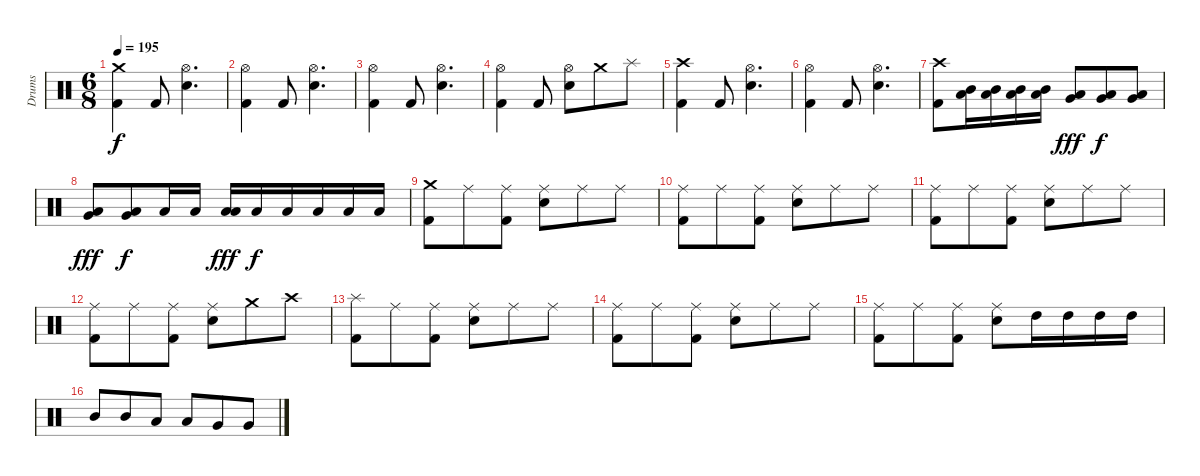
\track ("Drums" "Drums") {instrument percussion}
\staff {score}
\articulation defaults
\ts (6 8)
\tempo 195
\clef neutral
\ks c
("Crash medium (hit)" "Kick (hit) 2").4{dy f} "Kick (hit) 2".8 ("Hi-Hat (open)" "Electric Snare (hit)").4{d} |
("Hi-Hat (open)" "Kick (hit) 2").4 "Kick (hit) 2".8 ("Hi-Hat (open)" "Electric Snare (hit)").4{d} |
("Hi-Hat (open)" "Kick (hit) 2").4 "Kick (hit) 2".8 ("Hi-Hat (open)" "Electric Snare (hit)").4{d} |
("Hi-Hat (open)" "Kick (hit) 2").4 "Kick (hit) 2".8 ("Hi-Hat (open)" "Electric Snare (hit)").8 "Crash medium (hit)".8 "Splash (hit)".8 |
("Crash high (hit)" "Kick (hit) 2").4 "Kick (hit) 2".8 ("Hi-Hat (open)" "Electric Snare (hit)").4{d} |
("Hi-Hat (open)" "Kick (hit) 2").4 "Kick (hit) 2".8 ("Hi-Hat (open)" "Electric Snare (hit)").4{d} |
("Crash high (hit)" "Kick (hit) 2").8 ("Mid Tom (hit)" "Low Tom (hit)").16 ("Mid Tom (hit)" "Low Tom (hit)").16 ("Mid Tom (hit)" "Low Tom (hit)").16 ("Mid Tom (hit)" "Low Tom (hit)").16 ("Low Tom (hit)" "Very Low Tom (hit)").8{dy fff} ("Low Tom (hit)" "Very Low Tom (hit)").8{dy f} ("Very Low Tom (hit)" "Low Floor Tom (hit)").8 |
("Very Low Tom (hit)" "Low Floor Tom (hit)").8{dy fff} ("Very Low Tom (hit)" "Low Floor Tom (hit)").8{dy f} "Low Floor Tom (hit)".16 "Low Floor Tom (hit)".16 ("Low Floor Tom (hit)" "Low Floor Tom (hit)").16{dy fff} "Low Floor Tom (hit)".16{dy f} "Low Floor Tom (hit)".16 "Low Floor Tom (hit)".16 "Low Floor Tom (hit)".16 "Low Floor Tom (hit)".16 |
("Crash medium (hit)" "Kick (hit) 2").8 "Ride (middle)".8 ("Ride (middle)" "Kick (hit) 2").8 ("Ride (middle)" "Electric Snare (hit)").8 "Ride (middle)".8 "Ride (middle)".8 |
("Ride (middle)" "Kick (hit) 2").8 "Ride (middle)".8 ("Ride (middle)" "Kick (hit) 2").8 ("Ride (middle)" "Electric Snare (hit)").8 "Ride (middle)".8 "Ride (middle)".8 |
("Ride (middle)" "Kick (hit) 2").8 "Ride (middle)".8 ("Ride (middle)" "Kick (hit) 2").8 ("Ride (middle)" "Electric Snare (hit)").8 "Ride (middle)".8 "Ride (middle)".8 |
("Ride (middle)" "Kick (hit) 2").8 "Ride (middle)".8 ("Ride (middle)" "Kick (hit) 2").8 ("Ride (middle)" "Electric Snare (hit)").8 "Crash medium (hit)".8 "Crash high (hit)".8 |
("Splash (hit)" "Kick (hit) 2").8 "Ride (middle)".8 ("Ride (middle)" "Kick (hit) 2").8 ("Ride (middle)" "Electric Snare (hit)").8 "Ride (middle)".8 "Ride (middle)".8 |
("Ride (middle)" "Kick (hit) 2").8 "Ride (middle)".8 ("Ride (middle)" "Kick (hit) 2").8 ("Ride (middle)" "Electric Snare (hit)").8 "Ride (middle)".8 "Ride (middle)".8 |
("Ride (middle)" "Kick (hit) 2").8 "Ride (middle)".8 ("Ride (middle)" "Kick (hit) 2").8 ("Ride (middle)" "Electric Snare (hit)").8 "High Tom (hit)".16 "High Tom (hit)".16 "High Tom (hit)".16 "High Tom (hit)".16 |
"Mid Tom (hit)".8 "Mid Tom (hit)".8 "Low Tom (hit)".8 "Low Tom (hit)".8 "Very Low Tom (hit)".8 "Very Low Tom (hit)".8
